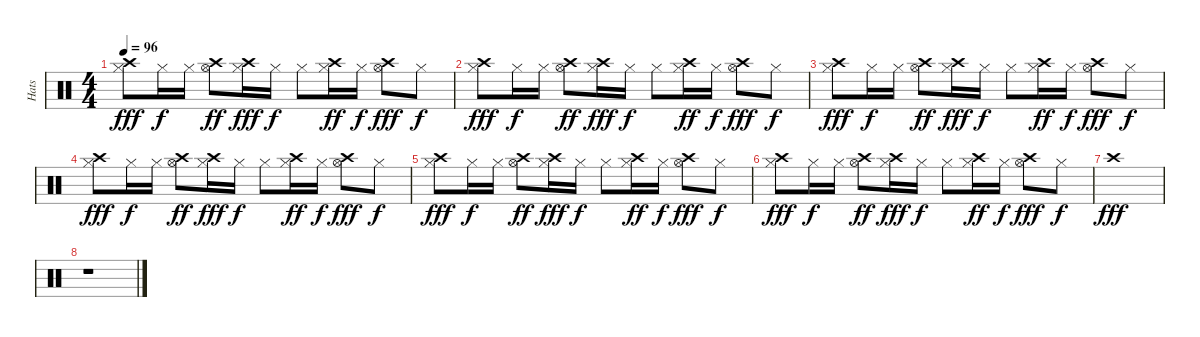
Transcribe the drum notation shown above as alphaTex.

\track ("Hats" "Hats") {instrument percussion}
\staff {score}
\articulation defaults
\ts (4 4)
\tempo 96
\clef neutral
\ks c
("Hi-Hat (closed)" "Crash high (hit)").8{dy fff} "Hi-Hat (closed)".16{dy f} "Hi-Hat (closed)".16 ("Hi-Hat (open)" "Crash high (hit)").8{dy ff} ("Hi-Hat (closed)" "Crash high (hit)").16{dy fff} "Hi-Hat (closed)".16{dy f} "Hi-Hat (closed)".8 ("Hi-Hat (closed)" "Crash high (hit)").16{dy ff} "Hi-Hat (closed)".16{dy f} ("Hi-Hat (open)" "Crash high (hit)").8{dy fff} "Hi-Hat (closed)".8{dy f} |
("Hi-Hat (closed)" "Crash high (hit)").8{dy fff} "Hi-Hat (closed)".16{dy f} "Hi-Hat (closed)".16 ("Hi-Hat (open)" "Crash high (hit)").8{dy ff} ("Hi-Hat (closed)" "Crash high (hit)").16{dy fff} "Hi-Hat (closed)".16{dy f} "Hi-Hat (closed)".8 ("Hi-Hat (closed)" "Crash high (hit)").16{dy ff} "Hi-Hat (closed)".16{dy f} ("Hi-Hat (open)" "Crash high (hit)").8{dy fff} "Hi-Hat (closed)".8{dy f} |
("Hi-Hat (closed)" "Crash high (hit)").8{dy fff} "Hi-Hat (closed)".16{dy f} "Hi-Hat (closed)".16 ("Hi-Hat (open)" "Crash high (hit)").8{dy ff} ("Hi-Hat (closed)" "Crash high (hit)").16{dy fff} "Hi-Hat (closed)".16{dy f} "Hi-Hat (closed)".8 ("Hi-Hat (closed)" "Crash high (hit)").16{dy ff} "Hi-Hat (closed)".16{dy f} ("Hi-Hat (open)" "Crash high (hit)").8{dy fff} "Hi-Hat (closed)".8{dy f} |
("Hi-Hat (closed)" "Crash high (hit)").8{dy fff} "Hi-Hat (closed)".16{dy f} "Hi-Hat (closed)".16 ("Hi-Hat (open)" "Crash high (hit)").8{dy ff} ("Hi-Hat (closed)" "Crash high (hit)").16{dy fff} "Hi-Hat (closed)".16{dy f} "Hi-Hat (closed)".8 ("Hi-Hat (closed)" "Crash high (hit)").16{dy ff} "Hi-Hat (closed)".16{dy f} ("Hi-Hat (open)" "Crash high (hit)").8{dy fff} "Hi-Hat (closed)".8{dy f} |
("Hi-Hat (closed)" "Crash high (hit)").8{dy fff} "Hi-Hat (closed)".16{dy f} "Hi-Hat (closed)".16 ("Hi-Hat (open)" "Crash high (hit)").8{dy ff} ("Hi-Hat (closed)" "Crash high (hit)").16{dy fff} "Hi-Hat (closed)".16{dy f} "Hi-Hat (closed)".8 ("Hi-Hat (closed)" "Crash high (hit)").16{dy ff} "Hi-Hat (closed)".16{dy f} ("Hi-Hat (open)" "Crash high (hit)").8{dy fff} "Hi-Hat (closed)".8{dy f} |
("Hi-Hat (closed)" "Crash high (hit)").8{dy fff} "Hi-Hat (closed)".16{dy f} "Hi-Hat (closed)".16 ("Hi-Hat (open)" "Crash high (hit)").8{dy ff} ("Hi-Hat (closed)" "Crash high (hit)").16{dy fff} "Hi-Hat (closed)".16{dy f} "Hi-Hat (closed)".8 ("Hi-Hat (closed)" "Crash high (hit)").16{dy ff} "Hi-Hat (closed)".16{dy f} ("Hi-Hat (open)" "Crash high (hit)").8{dy fff} "Hi-Hat (closed)".8{dy f} |
"Crash high (hit)".1{dy fff} |
r.1
